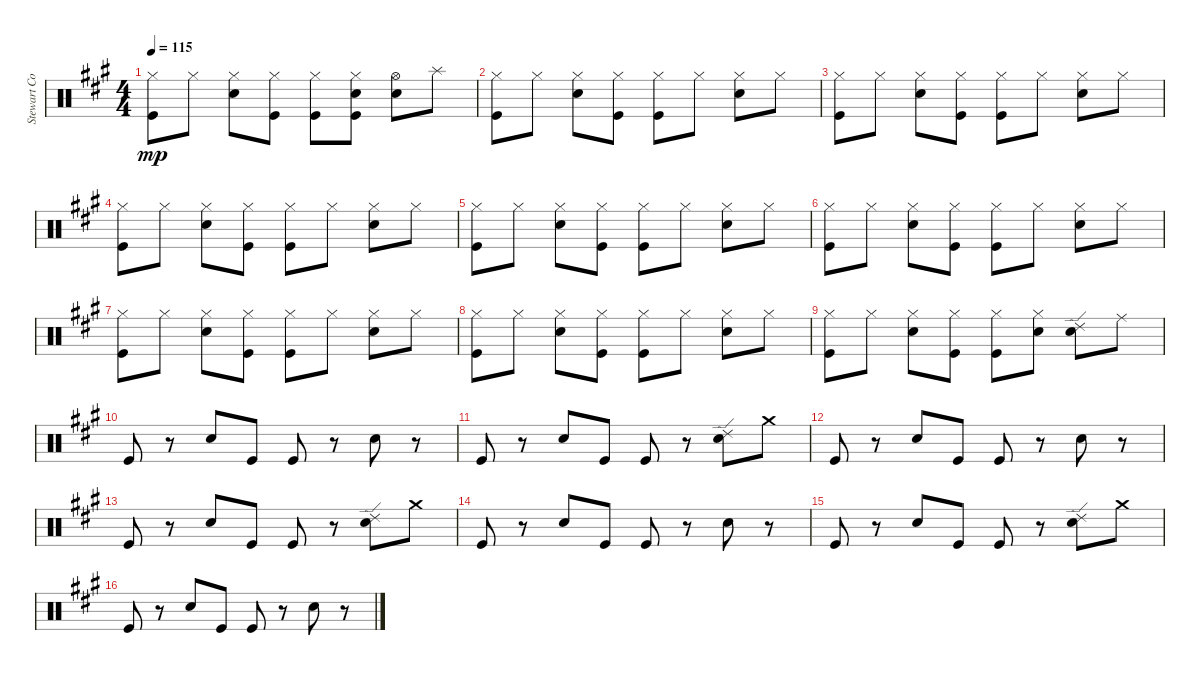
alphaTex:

\track ("Stewart Copeland" "Stewart Co") {instrument percussion}
\staff {score}
\articulation defaults
\ts (4 4)
\tempo 115
\clef neutral
\ks a
("Kick (hit)" "Hi-Hat (closed)").8{dy mp} "Hi-Hat (closed)".8 ("Snare (hit) 2" "Hi-Hat (closed)").8 ("Kick (hit)" "Hi-Hat (closed)").8 ("Kick (hit)" "Hi-Hat (closed)").8 ("Snare (hit) 2" "Kick (hit)" "Hi-Hat (closed)").8 ("Snare (hit) 2" "Hi-Hat (open)").8 "Splash (hit)".8 |
("Kick (hit)" "Hi-Hat (closed)").8 "Hi-Hat (closed)".8 ("Snare (hit) 2" "Hi-Hat (closed)").8 ("Kick (hit)" "Hi-Hat (closed)").8 ("Kick (hit)" "Hi-Hat (closed)").8 "Hi-Hat (closed)".8 ("Snare (hit) 2" "Hi-Hat (closed)").8 "Hi-Hat (closed)".8 |
("Kick (hit)" "Hi-Hat (closed)").8 "Hi-Hat (closed)".8 ("Snare (hit) 2" "Hi-Hat (closed)").8 ("Kick (hit)" "Hi-Hat (closed)").8 ("Kick (hit)" "Hi-Hat (closed)").8 "Hi-Hat (closed)".8 ("Snare (hit) 2" "Hi-Hat (closed)").8 "Hi-Hat (closed)".8 |
("Kick (hit)" "Hi-Hat (closed)").8 "Hi-Hat (closed)".8 ("Snare (hit) 2" "Hi-Hat (closed)").8 ("Kick (hit)" "Hi-Hat (closed)").8 ("Kick (hit)" "Hi-Hat (closed)").8 "Hi-Hat (closed)".8 ("Snare (hit) 2" "Hi-Hat (closed)").8 "Hi-Hat (closed)".8 |
("Kick (hit)" "Hi-Hat (closed)").8 "Hi-Hat (closed)".8 ("Snare (hit) 2" "Hi-Hat (closed)").8 ("Kick (hit)" "Hi-Hat (closed)").8 ("Kick (hit)" "Hi-Hat (closed)").8 "Hi-Hat (closed)".8 ("Snare (hit) 2" "Hi-Hat (closed)").8 "Hi-Hat (closed)".8 |
("Kick (hit)" "Hi-Hat (closed)").8 "Hi-Hat (closed)".8 ("Snare (hit) 2" "Hi-Hat (closed)").8 ("Kick (hit)" "Hi-Hat (closed)").8 ("Kick (hit)" "Hi-Hat (closed)").8 "Hi-Hat (closed)".8 ("Snare (hit) 2" "Hi-Hat (closed)").8 "Hi-Hat (closed)".8 |
("Kick (hit)" "Hi-Hat (closed)").8 "Hi-Hat (closed)".8 ("Snare (hit) 2" "Hi-Hat (closed)").8 ("Kick (hit)" "Hi-Hat (closed)").8 ("Kick (hit)" "Hi-Hat (closed)").8 "Hi-Hat (closed)".8 ("Snare (hit) 2" "Hi-Hat (closed)").8 "Hi-Hat (closed)".8 |
("Kick (hit)" "Hi-Hat (closed)").8 "Hi-Hat (closed)".8 ("Snare (hit) 2" "Hi-Hat (closed)").8 ("Kick (hit)" "Hi-Hat (closed)").8 ("Kick (hit)" "Hi-Hat (closed)").8 "Hi-Hat (closed)".8 ("Snare (hit) 2" "Hi-Hat (closed)").8 "Hi-Hat (closed)".8 |
("Kick (hit)" "Hi-Hat (closed)").8 "Hi-Hat (closed)".8 ("Snare (hit) 2" "Hi-Hat (closed)").8 ("Kick (hit)" "Hi-Hat (closed)").8 ("Kick (hit)" "Hi-Hat (closed)").8 ("Snare (hit) 2" "Hi-Hat (closed)").8 ("Snare (hit) 2" "Ride (edge) 2").8 "Ride (middle)".8 |
"Kick (hit)".8 r.8 "Snare (hit) 2".8 "Kick (hit)".8 "Kick (hit)".8 r.8 "Snare (hit) 2".8 r.8 |
"Kick (hit)".8 r.8 "Snare (hit) 2".8 "Kick (hit)".8 "Kick (hit)".8 r.8 ("Snare (hit) 2" "Ride (edge) 2").8 "Crash medium (hit)".8 |
"Kick (hit)".8 r.8 "Snare (hit) 2".8 "Kick (hit)".8 "Kick (hit)".8 r.8 "Snare (hit) 2".8 r.8 |
"Kick (hit)".8 r.8 "Snare (hit) 2".8 "Kick (hit)".8 "Kick (hit)".8 r.8 ("Snare (hit) 2" "Ride (edge) 2").8 "Crash medium (hit)".8 |
"Kick (hit)".8 r.8 "Snare (hit) 2".8 "Kick (hit)".8 "Kick (hit)".8 r.8 "Snare (hit) 2".8 r.8 |
"Kick (hit)".8 r.8 "Snare (hit) 2".8 "Kick (hit)".8 "Kick (hit)".8 r.8 ("Snare (hit) 2" "Ride (edge) 2").8 "Crash medium (hit)".8 |
"Kick (hit)".8 r.8 "Snare (hit) 2".8 "Kick (hit)".8 "Kick (hit)".8 r.8 "Snare (hit) 2".8 r.8
